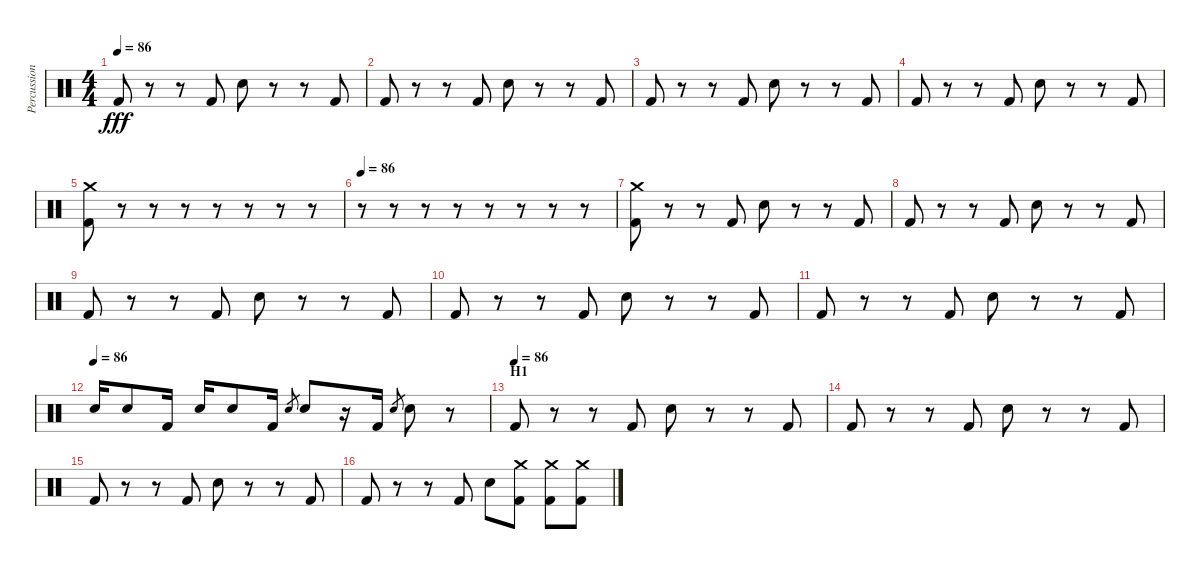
\track ("Percussion" "Percussion") {instrument percussion}
\staff {score}
\articulation defaults
\ts (4 4)
\tempo 86
\clef neutral
\ks c "Kick (hit) 2".8{dy fff}
r.8 r.8 "Kick (hit) 2".8 "Electric Snare (hit)".8 r.8 r.8 "Kick (hit) 2".8 |
"Kick (hit) 2".8 r.8 r.8 "Kick (hit) 2".8 "Electric Snare (hit)".8 r.8 r.8 "Kick (hit) 2".8 |
"Kick (hit) 2".8 r.8 r.8 "Kick (hit) 2".8 "Electric Snare (hit)".8 r.8 r.8 "Kick (hit) 2".8 |
"Kick (hit) 2".8 r.8 r.8 "Kick (hit) 2".8 "Electric Snare (hit)".8 r.8 r.8 "Kick (hit) 2".8 |
("Kick (hit) 2" "Crash medium (hit)").8 r.8 r.8 r.8 r.8 r.8 r.8 r.8 |
\tempo 86
r.8 r.8 r.8 r.8 r.8 r.8 r.8 r.8 |
("Kick (hit) 2" "Crash medium (hit)").8 r.8 r.8 "Kick (hit) 2".8 "Electric Snare (hit)".8 r.8 r.8 "Kick (hit) 2".8 |
"Kick (hit) 2".8 r.8 r.8 "Kick (hit) 2".8 "Electric Snare (hit)".8 r.8 r.8 "Kick (hit) 2".8 |
"Kick (hit) 2".8 r.8 r.8 "Kick (hit) 2".8 "Electric Snare (hit)".8 r.8 r.8 "Kick (hit) 2".8 |
"Kick (hit) 2".8 r.8 r.8 "Kick (hit) 2".8 "Electric Snare (hit)".8 r.8 r.8 "Kick (hit) 2".8 |
"Kick (hit) 2".8 r.8 r.8 "Kick (hit) 2".8 "Electric Snare (hit)".8 r.8 r.8 "Kick (hit) 2".8 |
\tempo (86)
"Electric Snare (hit)".16 "Electric Snare (hit)".8 "Kick (hit) 2".16 "Electric Snare (hit)".16 "Electric Snare (hit)".8 "Kick (hit) 2".16 "Electric Snare (hit)".8{gr} "Electric Snare (hit)".8 r.16 "Kick (hit) 2".16 "Electric Snare (hit)".8{gr} "Electric Snare (hit)".8 r.8 |
\section ("" "H1")
\tempo (86)
"Kick (hit) 2".8 r.8 r.8 "Kick (hit) 2".8 "Electric Snare (hit)".8 r.8 r.8 "Kick (hit) 2".8 |
"Kick (hit) 2".8 r.8 r.8 "Kick (hit) 2".8 "Electric Snare (hit)".8 r.8 r.8 "Kick (hit) 2".8 |
"Kick (hit) 2".8 r.8 r.8 "Kick (hit) 2".8 "Electric Snare (hit)".8 r.8 r.8 "Kick (hit) 2".8 |
"Kick (hit) 2".8 r.8 r.8 "Kick (hit) 2".8 "Electric Snare (hit)".8 ("Kick (hit) 2" "Crash medium (hit)").8 ("Kick (hit) 2" "Crash medium (hit)").8 ("Kick (hit) 2" "Crash medium (hit)").8
